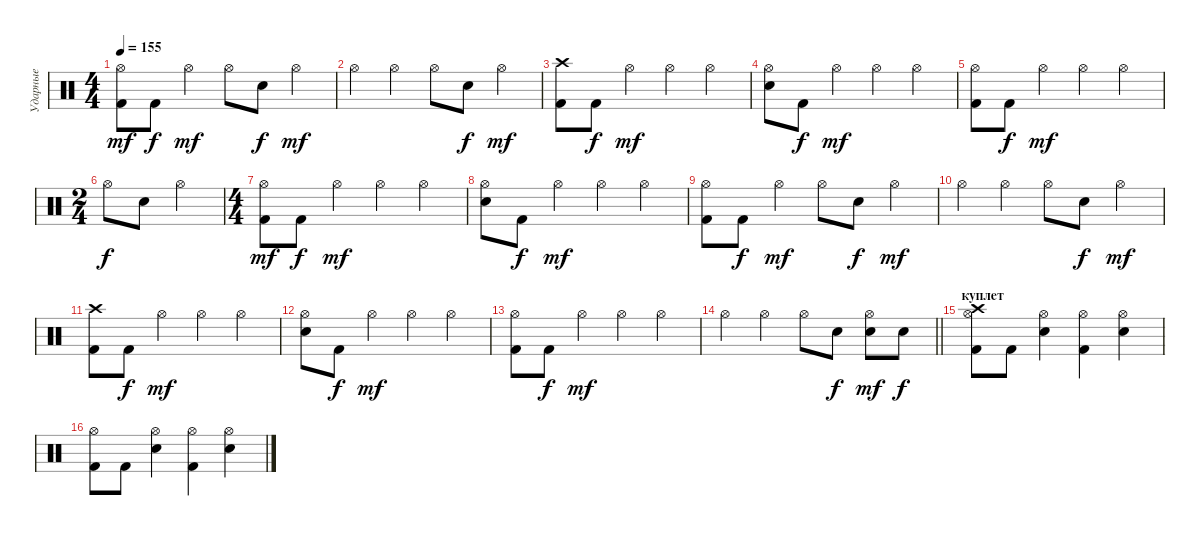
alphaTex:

\track ("Ударные" "Ударные") {instrument percussion}
\staff {score}
\articulation defaults
\ts (4 4)
\tempo 155
\clef neutral
\ks c
("Kick (hit) 2" "Hi-Hat (open)").8{dy mf} "Kick (hit) 2".8{dy f} "Hi-Hat (open)".4{dy mf} "Hi-Hat (open)".8 "Snare (hit) 2".8{dy f} "Hi-Hat (open)".4{dy mf} |
"Hi-Hat (open)".4 "Hi-Hat (open)".4 "Hi-Hat (open)".8 "Snare (hit) 2".8{dy f} "Hi-Hat (open)".4{dy mf} |
("Kick (hit) 2" "Crash high (hit)").8 "Kick (hit) 2".8{dy f} "Hi-Hat (open)".4{dy mf} "Hi-Hat (open)".4 "Hi-Hat (open)".4 |
("Snare (hit) 2" "Hi-Hat (open)").8 "Kick (hit) 2".8{dy f} "Hi-Hat (open)".4{dy mf} "Hi-Hat (open)".4 "Hi-Hat (open)".4 |
("Kick (hit) 2" "Hi-Hat (open)").8 "Kick (hit) 2".8{dy f} "Hi-Hat (open)".4{dy mf} "Hi-Hat (open)".4 "Hi-Hat (open)".4 |
\ts (2 4)
"Hi-Hat (open)".8{dy f} "Snare (hit) 2".8 "Hi-Hat (open)".4 |
\ts (4 4)
("Kick (hit) 2" "Hi-Hat (open)").8{dy mf} "Kick (hit) 2".8{dy f} "Hi-Hat (open)".4{dy mf} "Hi-Hat (open)".4 "Hi-Hat (open)".4 |
("Snare (hit) 2" "Hi-Hat (open)").8 "Kick (hit) 2".8{dy f} "Hi-Hat (open)".4{dy mf} "Hi-Hat (open)".4 "Hi-Hat (open)".4 |
("Kick (hit) 2" "Hi-Hat (open)").8 "Kick (hit) 2".8{dy f} "Hi-Hat (open)".4{dy mf} "Hi-Hat (open)".8 "Snare (hit) 2".8{dy f} "Hi-Hat (open)".4{dy mf} |
"Hi-Hat (open)".4 "Hi-Hat (open)".4 "Hi-Hat (open)".8 "Snare (hit) 2".8{dy f} "Hi-Hat (open)".4{dy mf} |
("Kick (hit) 2" "Crash high (hit)").8 "Kick (hit) 2".8{dy f} "Hi-Hat (open)".4{dy mf} "Hi-Hat (open)".4 "Hi-Hat (open)".4 |
("Snare (hit) 2" "Hi-Hat (open)").8 "Kick (hit) 2".8{dy f} "Hi-Hat (open)".4{dy mf} "Hi-Hat (open)".4 "Hi-Hat (open)".4 |
("Kick (hit) 2" "Hi-Hat (open)").8 "Kick (hit) 2".8{dy f} "Hi-Hat (open)".4{dy mf} "Hi-Hat (open)".4 "Hi-Hat (open)".4 |
\barLineRight lightlight "Hi-Hat (open)".4 "Hi-Hat (open)".4 "Hi-Hat (open)".8 "Snare (hit) 2".8{dy f}
("Snare (hit) 2" "Hi-Hat (open)").8{dy mf} "Snare (hit) 2".8{dy f} |
\section ("" "куплет")
("Kick (hit) 2" "Hi-Hat (open)" "Crash high (hit)").8 "Kick (hit) 2".8 ("Snare (hit) 2" "Hi-Hat (open)").4 ("Kick (hit) 2" "Hi-Hat (open)").4 ("Snare (hit) 2" "Hi-Hat (open)").4 |
("Kick (hit) 2" "Hi-Hat (open)").8 "Kick (hit) 2".8 ("Snare (hit) 2" "Hi-Hat (open)").4 ("Kick (hit) 2" "Hi-Hat (open)").4 ("Snare (hit) 2" "Hi-Hat (open)").4
